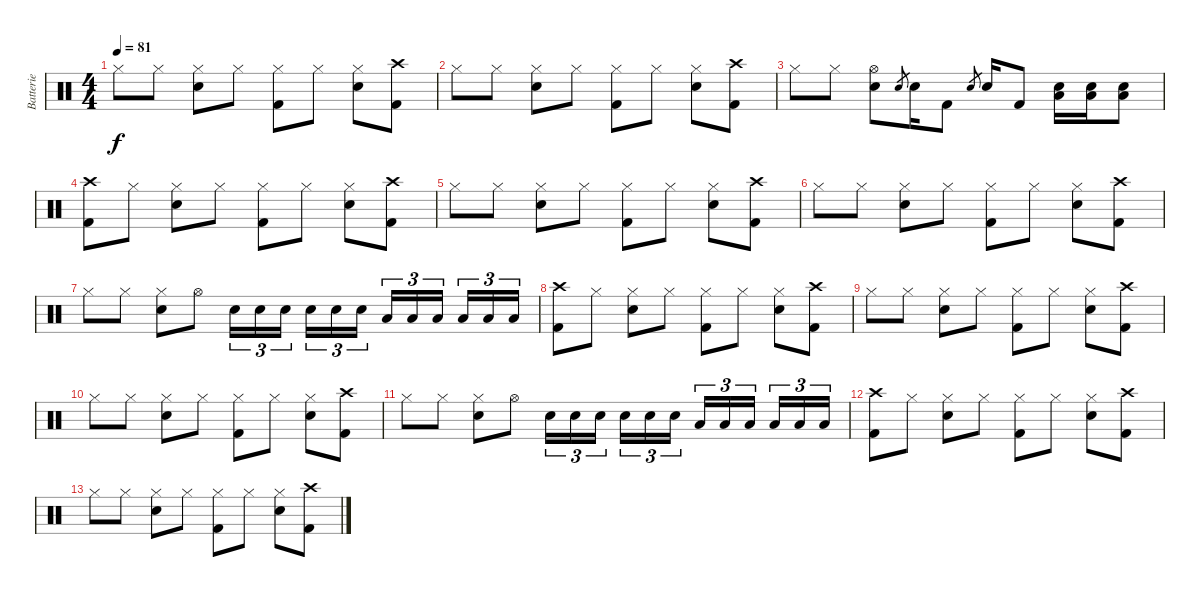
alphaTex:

\track ("Batterie" "Batterie") {instrument percussion}
\staff {score}
\articulation defaults
\ts (4 4)
\tempo 81
\clef neutral
\ks c "Hi-Hat (closed)".8{dy f} "Hi-Hat (closed)".8
("Hi-Hat (closed)" "Electric Snare (hit)").8 "Hi-Hat (closed)".8 ("Hi-Hat (closed)" "Kick (hit) 2").8 "Hi-Hat (closed)".8 ("Hi-Hat (closed)" "Electric Snare (hit)").8 ("Crash high (hit)" "Kick (hit) 2").8 |
"Hi-Hat (closed)".8 "Hi-Hat (closed)".8 ("Hi-Hat (closed)" "Electric Snare (hit)").8 "Hi-Hat (closed)".8 ("Hi-Hat (closed)" "Kick (hit) 2").8 "Hi-Hat (closed)".8 ("Hi-Hat (closed)" "Electric Snare (hit)").8 ("Crash high (hit)" "Kick (hit) 2").8 |
"Hi-Hat (closed)".8 "Hi-Hat (closed)".8 ("Hi-Hat (open)" "Electric Snare (hit)").8 "Electric Snare (hit)".8{gr} "Electric Snare (hit)".16 "Kick (hit) 2".8 "Electric Snare (hit)".8{gr} "Electric Snare (hit)".16 "Kick (hit) 2".8 ("Electric Snare (hit)" "Low Tom (hit)").16 ("Electric Snare (hit)" "Low Tom (hit)").16 ("Electric Snare (hit)" "Low Tom (hit)").8 |
("Crash high (hit)" "Kick (hit) 2").8 "Hi-Hat (closed)".8 ("Hi-Hat (closed)" "Electric Snare (hit)").8 "Hi-Hat (closed)".8 ("Hi-Hat (closed)" "Kick (hit) 2").8 "Hi-Hat (closed)".8 ("Hi-Hat (closed)" "Electric Snare (hit)").8 ("Crash high (hit)" "Kick (hit) 2").8 |
"Hi-Hat (closed)".8 "Hi-Hat (closed)".8 ("Hi-Hat (closed)" "Electric Snare (hit)").8 "Hi-Hat (closed)".8 ("Hi-Hat (closed)" "Kick (hit) 2").8 "Hi-Hat (closed)".8 ("Hi-Hat (closed)" "Electric Snare (hit)").8 ("Crash high (hit)" "Kick (hit) 2").8 |
"Hi-Hat (closed)".8 "Hi-Hat (closed)".8 ("Hi-Hat (closed)" "Electric Snare (hit)").8 "Hi-Hat (closed)".8 ("Hi-Hat (closed)" "Kick (hit) 2").8 "Hi-Hat (closed)".8 ("Hi-Hat (closed)" "Electric Snare (hit)").8 ("Crash high (hit)" "Kick (hit) 2").8 |
"Hi-Hat (closed)".8 "Hi-Hat (closed)".8 ("Hi-Hat (closed)" "Electric Snare (hit)").8 "Hi-Hat (open)".8 "Electric Snare (hit)".16{tu (3 2)} "Electric Snare (hit)".16{tu (3 2)} "Electric Snare (hit)".16{tu (3 2)} "Electric Snare (hit)".16{tu (3 2)} "Electric Snare (hit)".16{tu (3 2)} "Electric Snare (hit)".16{tu (3 2)} "Low Tom (hit)".16{tu (3 2)} "Low Tom (hit)".16{tu (3 2)} "Low Tom (hit)".16{tu (3 2)} "Low Floor Tom (hit)".16{tu (3 2)} "Low Floor Tom (hit)".16{tu (3 2)} "Low Floor Tom (hit)".16{tu (3 2)} |
("Crash high (hit)" "Kick (hit) 2").8 "Hi-Hat (closed)".8 ("Hi-Hat (closed)" "Electric Snare (hit)").8 "Hi-Hat (closed)".8 ("Hi-Hat (closed)" "Kick (hit) 2").8 "Hi-Hat (closed)".8 ("Hi-Hat (closed)" "Electric Snare (hit)").8 ("Crash high (hit)" "Kick (hit) 2").8 |
"Hi-Hat (closed)".8 "Hi-Hat (closed)".8 ("Hi-Hat (closed)" "Electric Snare (hit)").8 "Hi-Hat (closed)".8 ("Hi-Hat (closed)" "Kick (hit) 2").8 "Hi-Hat (closed)".8 ("Hi-Hat (closed)" "Electric Snare (hit)").8 ("Crash high (hit)" "Kick (hit) 2").8 |
"Hi-Hat (closed)".8 "Hi-Hat (closed)".8 ("Hi-Hat (closed)" "Electric Snare (hit)").8 "Hi-Hat (closed)".8 ("Hi-Hat (closed)" "Kick (hit) 2").8 "Hi-Hat (closed)".8 ("Hi-Hat (closed)" "Electric Snare (hit)").8 ("Crash high (hit)" "Kick (hit) 2").8 |
"Hi-Hat (closed)".8 "Hi-Hat (closed)".8 ("Hi-Hat (closed)" "Electric Snare (hit)").8 "Hi-Hat (open)".8 "Electric Snare (hit)".16{tu (3 2)} "Electric Snare (hit)".16{tu (3 2)} "Electric Snare (hit)".16{tu (3 2)} "Electric Snare (hit)".16{tu (3 2)} "Electric Snare (hit)".16{tu (3 2)} "Electric Snare (hit)".16{tu (3 2)} "Low Tom (hit)".16{tu (3 2)} "Low Tom (hit)".16{tu (3 2)} "Low Tom (hit)".16{tu (3 2)} "Low Floor Tom (hit)".16{tu (3 2)} "Low Floor Tom (hit)".16{tu (3 2)} "Low Floor Tom (hit)".16{tu (3 2)} |
("Crash high (hit)" "Kick (hit) 2").8{volume 0} "Hi-Hat (closed)".8 ("Hi-Hat (closed)" "Electric Snare (hit)").8 "Hi-Hat (closed)".8 ("Hi-Hat (closed)" "Kick (hit) 2").8 "Hi-Hat (closed)".8 ("Hi-Hat (closed)" "Electric Snare (hit)").8 ("Crash high (hit)" "Kick (hit) 2").8 |
"Hi-Hat (closed)".8 "Hi-Hat (closed)".8 ("Hi-Hat (closed)" "Electric Snare (hit)").8 "Hi-Hat (closed)".8 ("Hi-Hat (closed)" "Kick (hit) 2").8 "Hi-Hat (closed)".8 ("Hi-Hat (closed)" "Electric Snare (hit)").8 ("Crash high (hit)" "Kick (hit) 2").8
